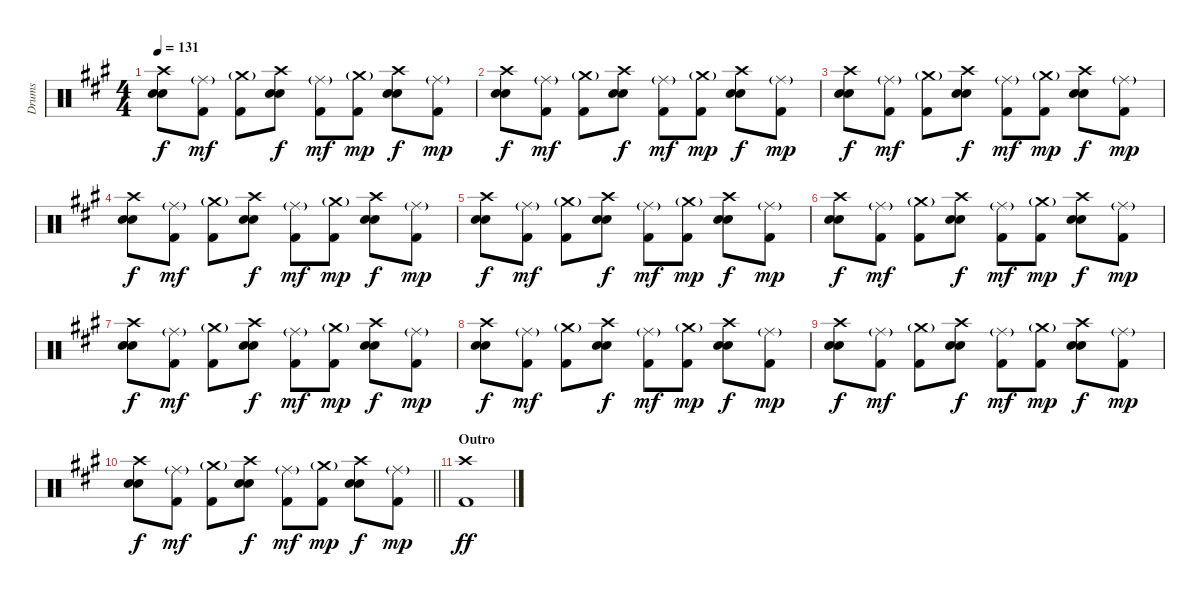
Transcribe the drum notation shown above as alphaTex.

\track ("Drums" "Drums") {instrument percussion}
\staff {score}
\articulation defaults
\ts (4 4)
\tempo 131
\clef neutral
\ks a
("Crash high (hit)" "Electric Snare (hit)" "Snare (hit) 2").8{dy f} ("Ride (middle)"{g} "Kick (hit) 2").8{dy mf} ("Crash medium (hit)"{g} "Kick (hit) 2").8 ("Crash high (hit)" "Electric Snare (hit)" "Snare (hit) 2").8{dy f} ("Ride (middle)"{g} "Kick (hit) 2").8{dy mf} ("Crash medium (hit)"{g} "Kick (hit) 2").8{dy mp} ("Crash high (hit)" "Electric Snare (hit)" "Snare (hit) 2").8{dy f} ("Ride (middle)"{g} "Kick (hit) 2").8{dy mp} |
("Crash high (hit)" "Electric Snare (hit)" "Snare (hit) 2").8{dy f} ("Ride (middle)"{g} "Kick (hit) 2").8{dy mf} ("Crash medium (hit)"{g} "Kick (hit) 2").8 ("Crash high (hit)" "Electric Snare (hit)" "Snare (hit) 2").8{dy f} ("Ride (middle)"{g} "Kick (hit) 2").8{dy mf} ("Crash medium (hit)"{g} "Kick (hit) 2").8{dy mp} ("Crash high (hit)" "Electric Snare (hit)" "Snare (hit) 2").8{dy f} ("Ride (middle)"{g} "Kick (hit) 2").8{dy mp} |
("Crash high (hit)" "Electric Snare (hit)" "Snare (hit) 2").8{dy f} ("Ride (middle)"{g} "Kick (hit) 2").8{dy mf} ("Crash medium (hit)"{g} "Kick (hit) 2").8 ("Crash high (hit)" "Electric Snare (hit)" "Snare (hit) 2").8{dy f} ("Ride (middle)"{g} "Kick (hit) 2").8{dy mf} ("Crash medium (hit)"{g} "Kick (hit) 2").8{dy mp} ("Crash high (hit)" "Electric Snare (hit)" "Snare (hit) 2").8{dy f} ("Ride (middle)"{g} "Kick (hit) 2").8{dy mp} |
("Crash high (hit)" "Electric Snare (hit)" "Snare (hit) 2").8{dy f} ("Ride (middle)"{g} "Kick (hit) 2").8{dy mf} ("Crash medium (hit)"{g} "Kick (hit) 2").8 ("Crash high (hit)" "Electric Snare (hit)" "Snare (hit) 2").8{dy f} ("Ride (middle)"{g} "Kick (hit) 2").8{dy mf} ("Crash medium (hit)"{g} "Kick (hit) 2").8{dy mp} ("Crash high (hit)" "Electric Snare (hit)" "Snare (hit) 2").8{dy f} ("Ride (middle)"{g} "Kick (hit) 2").8{dy mp} |
("Crash high (hit)" "Electric Snare (hit)" "Snare (hit) 2").8{dy f} ("Ride (middle)"{g} "Kick (hit) 2").8{dy mf} ("Crash medium (hit)"{g} "Kick (hit) 2").8 ("Crash high (hit)" "Electric Snare (hit)" "Snare (hit) 2").8{dy f} ("Ride (middle)"{g} "Kick (hit) 2").8{dy mf} ("Crash medium (hit)"{g} "Kick (hit) 2").8{dy mp} ("Crash high (hit)" "Electric Snare (hit)" "Snare (hit) 2").8{dy f} ("Ride (middle)"{g} "Kick (hit) 2").8{dy mp} |
("Crash high (hit)" "Electric Snare (hit)" "Snare (hit) 2").8{dy f} ("Ride (middle)"{g} "Kick (hit) 2").8{dy mf} ("Crash medium (hit)"{g} "Kick (hit) 2").8 ("Crash high (hit)" "Electric Snare (hit)" "Snare (hit) 2").8{dy f} ("Ride (middle)"{g} "Kick (hit) 2").8{dy mf} ("Crash medium (hit)"{g} "Kick (hit) 2").8{dy mp} ("Crash high (hit)" "Electric Snare (hit)" "Snare (hit) 2").8{dy f} ("Ride (middle)"{g} "Kick (hit) 2").8{dy mp} |
("Crash high (hit)" "Electric Snare (hit)" "Snare (hit) 2").8{dy f} ("Ride (middle)"{g} "Kick (hit) 2").8{dy mf} ("Crash medium (hit)"{g} "Kick (hit) 2").8 ("Crash high (hit)" "Electric Snare (hit)" "Snare (hit) 2").8{dy f} ("Ride (middle)"{g} "Kick (hit) 2").8{dy mf} ("Crash medium (hit)"{g} "Kick (hit) 2").8{dy mp} ("Crash high (hit)" "Electric Snare (hit)" "Snare (hit) 2").8{dy f} ("Ride (middle)"{g} "Kick (hit) 2").8{dy mp} |
("Crash high (hit)" "Electric Snare (hit)" "Snare (hit) 2").8{dy f} ("Ride (middle)"{g} "Kick (hit) 2").8{dy mf} ("Crash medium (hit)"{g} "Kick (hit) 2").8 ("Crash high (hit)" "Electric Snare (hit)" "Snare (hit) 2").8{dy f} ("Ride (middle)"{g} "Kick (hit) 2").8{dy mf} ("Crash medium (hit)"{g} "Kick (hit) 2").8{dy mp} ("Crash high (hit)" "Electric Snare (hit)" "Snare (hit) 2").8{dy f} ("Ride (middle)"{g} "Kick (hit) 2").8{dy mp} |
("Crash high (hit)" "Electric Snare (hit)" "Snare (hit) 2").8{dy f} ("Ride (middle)"{g} "Kick (hit) 2").8{dy mf} ("Crash medium (hit)"{g} "Kick (hit) 2").8 ("Crash high (hit)" "Electric Snare (hit)" "Snare (hit) 2").8{dy f} ("Ride (middle)"{g} "Kick (hit) 2").8{dy mf} ("Crash medium (hit)"{g} "Kick (hit) 2").8{dy mp} ("Crash high (hit)" "Electric Snare (hit)" "Snare (hit) 2").8{dy f} ("Ride (middle)"{g} "Kick (hit) 2").8{dy mp} |
\barLineRight lightlight
("Crash high (hit)" "Electric Snare (hit)" "Snare (hit) 2").8{dy f} ("Ride (middle)"{g} "Kick (hit) 2").8{dy mf} ("Crash medium (hit)"{g} "Kick (hit) 2").8 ("Crash high (hit)" "Electric Snare (hit)" "Snare (hit) 2").8{dy f} ("Ride (middle)"{g} "Kick (hit) 2").8{dy mf} ("Crash medium (hit)"{g} "Kick (hit) 2").8{dy mp} ("Crash high (hit)" "Electric Snare (hit)" "Snare (hit) 2").8{dy f} ("Ride (middle)"{g} "Kick (hit) 2").8{dy mp} |
\section ("" "Outro")
("Kick (hit) 2" "Crash high (hit)").1{dy ff}
